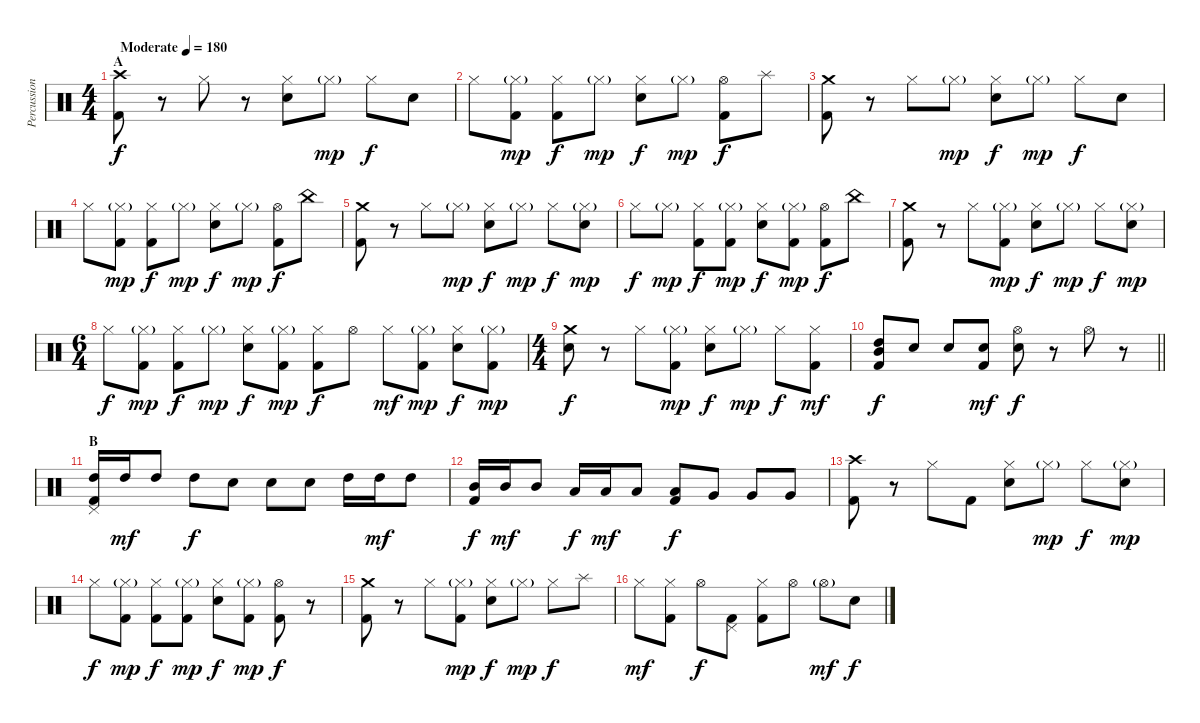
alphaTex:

\track ("Percussion" "Percussion") {instrument percussion}
\staff {score}
\articulation defaults
\ts (4 4)
\section ("" "A")
\tempo (180 "Moderate")
\clef neutral
\ks c
("Crash high (hit)" "Kick (hit) 2").8{dy f} r.8 "Hi-Hat (closed)".8 r.8 ("Hi-Hat (closed)" "Snare (hit) 2").8 "Hi-Hat (closed)"{g}.8{dy mp} "Hi-Hat (closed)".8{dy f} "Snare (hit) 2".8 |
"Hi-Hat (closed)".8 ("Hi-Hat (closed)"{g} "Kick (hit) 2").8{dy mp} ("Hi-Hat (closed)" "Kick (hit) 2").8{dy f} "Hi-Hat (closed)"{g}.8{dy mp} ("Hi-Hat (closed)" "Snare (hit) 2").8{dy f} "Hi-Hat (closed)"{g}.8{dy mp} ("Hi-Hat (open)" "Kick (hit) 2").8{dy f} "Splash (hit)".8 |
("Crash medium (hit)" "Kick (hit) 2").8 r.8 "Hi-Hat (closed)".8 "Hi-Hat (closed)"{g}.8{dy mp} ("Hi-Hat (closed)" "Snare (hit) 2").8{dy f} "Hi-Hat (closed)"{g}.8{dy mp} "Hi-Hat (closed)".8{dy f} "Snare (hit) 2".8 |
"Hi-Hat (closed)".8 ("Hi-Hat (closed)"{g} "Kick (hit) 2").8{dy mp} ("Hi-Hat (closed)" "Kick (hit) 2").8{dy f} "Hi-Hat (closed)"{g}.8{dy mp} ("Hi-Hat (closed)" "Snare (hit) 2").8{dy f} "Hi-Hat (closed)"{g}.8{dy mp} ("Hi-Hat (open)" "Kick (hit) 2").8{dy f} "China (hit)".8 |
("Crash medium (hit)" "Kick (hit) 2").8 r.8 "Hi-Hat (closed)".8 "Hi-Hat (closed)"{g}.8{dy mp} ("Hi-Hat (closed)" "Snare (hit) 2").8{dy f} "Hi-Hat (closed)"{g}.8{dy mp} "Hi-Hat (closed)".8{dy f} ("Hi-Hat (closed)"{g} "Snare (hit) 2").8{dy mp} |
"Hi-Hat (closed)".8{dy f} "Hi-Hat (closed)"{g}.8{dy mp} ("Hi-Hat (closed)" "Kick (hit) 2").8{dy f} ("Hi-Hat (closed)"{g} "Kick (hit) 2").8{dy mp} ("Hi-Hat (closed)" "Snare (hit) 2").8{dy f} ("Hi-Hat (closed)"{g} "Kick (hit) 2").8{dy mp} ("Hi-Hat (open)" "Kick (hit) 2").8{dy f} "China (hit)".8 |
("Crash medium (hit)" "Kick (hit) 2").8 r.8 "Hi-Hat (closed)".8 ("Hi-Hat (closed)"{g} "Kick (hit) 2").8{dy mp} ("Hi-Hat (closed)" "Snare (hit) 2").8{dy f} "Hi-Hat (closed)"{g}.8{dy mp} "Hi-Hat (closed)".8{dy f} ("Hi-Hat (closed)"{g} "Snare (hit) 2").8{dy mp} |
\ts (6 4)
"Hi-Hat (closed)".8{dy f} ("Hi-Hat (closed)"{g} "Kick (hit) 2").8{dy mp} ("Hi-Hat (closed)" "Kick (hit) 2").8{dy f} "Hi-Hat (closed)"{g}.8{dy mp} ("Hi-Hat (closed)" "Snare (hit) 2").8{dy f} ("Hi-Hat (closed)"{g} "Kick (hit) 2").8{dy mp} ("Hi-Hat (closed)" "Kick (hit) 2").8{dy f} "Hi-Hat (open)".8 "Hi-Hat (closed)".8{dy mf} ("Hi-Hat (closed)"{g} "Kick (hit) 2").8{dy mp} ("Hi-Hat (closed)" "Snare (hit) 2").8{dy f} ("Hi-Hat (closed)"{g} "Kick (hit) 2").8{dy mp} |
\ts (4 4)
("Crash medium (hit)" "Snare (hit) 2").8{dy f} r.8 "Hi-Hat (closed)".8 ("Hi-Hat (closed)"{g} "Kick (hit) 2").8{dy mp} ("Hi-Hat (closed)" "Snare (hit) 2").8{dy f} "Hi-Hat (closed)"{g}.8{dy mp} "Hi-Hat (closed)".8{dy f} ("Hi-Hat (closed)" "Kick (hit) 2").8{dy mf} |
\barLineRight lightlight
("High Tom (hit)" "Mid Tom (hit)" "Kick (hit) 2").8{bu 60 dy f} "Snare (hit) 2".8 "Snare (hit) 2".8 ("Snare (hit) 2" "Kick (hit) 2").8{dy mf} ("Hi-Hat (open)" "Snare (hit) 2").8{dy f} r.8 "Hi-Hat (open)".8 r.8 |
\section ("" "B")
("Pedal Hi-Hat (hit)" "High Tom (hit)" "Kick (hit) 2").16 "High Tom (hit)".16{dy mf} "High Tom (hit)".8 "High Tom (hit)".8{dy f} "Snare (hit) 2".8 "Snare (hit) 2".8 "Snare (hit) 2".8 "High Tom (hit)".16 "High Tom (hit)".16{dy mf} "High Tom (hit)".8 |
("Mid Tom (hit)" "Kick (hit) 2").16{dy f} "Mid Tom (hit)".16{dy mf} "Mid Tom (hit)".8 "Low Tom (hit)".16{dy f} "Low Tom (hit)".16{dy mf} "Low Tom (hit)".8 ("Low Tom (hit)" "Kick (hit) 2").8{dy f} "Very Low Tom (hit)".8 "Very Low Tom (hit)".8 "Very Low Tom (hit)".8 |
("Crash high (hit)" "Kick (hit) 2").8 r.8 "Hi-Hat (closed)".8 "Kick (hit) 2".8 ("Hi-Hat (closed)" "Snare (hit) 2").8 "Hi-Hat (closed)"{g}.8{dy mp} "Hi-Hat (closed)".8{dy f} ("Hi-Hat (closed)"{g} "Snare (hit) 2").8{dy mp} |
"Hi-Hat (closed)".8{dy f} ("Hi-Hat (closed)"{g} "Kick (hit) 2").8{dy mp} ("Hi-Hat (closed)" "Kick (hit) 2").8{dy f} ("Hi-Hat (closed)"{g} "Kick (hit) 2").8{dy mp} ("Hi-Hat (closed)" "Snare (hit) 2").8{dy f} ("Hi-Hat (closed)"{g} "Kick (hit) 2").8{dy mp} ("Hi-Hat (open)" "Kick (hit) 2").8{dy f} r.8 |
("Crash medium (hit)" "Kick (hit) 2").8 r.8 "Hi-Hat (closed)".8 ("Hi-Hat (closed)"{g} "Kick (hit) 2").8{dy mp} ("Hi-Hat (closed)" "Snare (hit) 2").8{dy f} "Hi-Hat (closed)"{g}.8{dy mp} "Hi-Hat (closed)".8{dy f} "Splash (hit)".8 |
"Hi-Hat (closed)".8{dy mf} ("Hi-Hat (closed)" "Kick (hit) 2").8 "Hi-Hat (open)".8{dy f} ("Pedal Hi-Hat (hit)" "Kick (hit) 2").8 ("Hi-Hat (closed)" "Kick (hit) 2").8 "Hi-Hat (open)".8 "Hi-Hat (open)"{g}.8{dy mf} "Snare (hit) 2".8{dy f}
